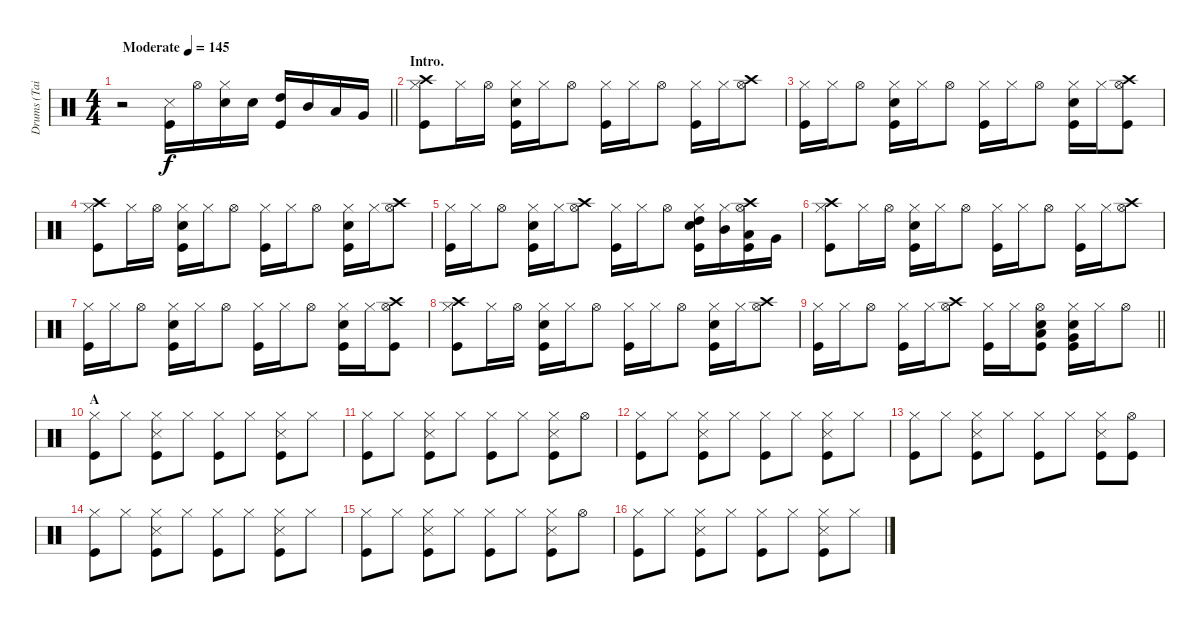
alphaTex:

\track ("Drums (Tainaka Ritsu)" "Drums (Tai") {instrument percussion}
\staff {score}
\articulation defaults
\ts (4 4)
\tempo (145 "Moderate")
\clef neutral
\barLineRight lightlight
\ks c
r.2{dy f} ("Snare (side stick) 3" "Kick (hit)").16 "Hi-Hat (open)".16 ("Hi-Hat (closed)" "Snare (hit) 2").16 "Snare (hit) 2".16 ("High Tom (hit)" "Kick (hit)").16 "Mid Tom (hit)".16 "Low Tom (hit)".16 "Very Low Tom (hit)".16 |
\section ("" "Intro.")
("Crash high (hit)" "Hi-Hat (closed)" "Kick (hit)").8 "Hi-Hat (closed)".16 "Hi-Hat (open)".16 ("Hi-Hat (closed)" "Snare (hit) 2" "Kick (hit)").16 "Hi-Hat (closed)".16 "Hi-Hat (open)".8 ("Hi-Hat (closed)" "Kick (hit)").16 "Hi-Hat (closed)".16 "Hi-Hat (open)".8 ("Hi-Hat (closed)" "Kick (hit)").16 "Hi-Hat (closed)".16 ("Crash high (hit)" "Hi-Hat (open)").8 |
("Hi-Hat (closed)" "Kick (hit)").16 "Hi-Hat (closed)".16 "Hi-Hat (open)".8 ("Hi-Hat (closed)" "Snare (hit) 2" "Kick (hit)").16 "Hi-Hat (closed)".16 "Hi-Hat (open)".8 ("Hi-Hat (closed)" "Kick (hit)").16 "Hi-Hat (closed)".16 "Hi-Hat (open)".8 ("Hi-Hat (closed)" "Snare (hit) 2" "Kick (hit)").16 "Hi-Hat (closed)".16 ("Crash high (hit)" "Hi-Hat (open)" "Kick (hit)").8 |
("Crash high (hit)" "Hi-Hat (closed)" "Kick (hit)").8 "Hi-Hat (closed)".16 "Hi-Hat (open)".16 ("Hi-Hat (closed)" "Snare (hit) 2" "Kick (hit)").16 "Hi-Hat (closed)".16 "Hi-Hat (open)".8 ("Hi-Hat (closed)" "Kick (hit)").16 "Hi-Hat (closed)".16 "Hi-Hat (open)".8 ("Hi-Hat (closed)" "Snare (hit) 2" "Kick (hit)").16 "Hi-Hat (closed)".16 ("Crash high (hit)" "Hi-Hat (open)").8 |
("Hi-Hat (closed)" "Kick (hit)").16 "Hi-Hat (closed)".16 "Hi-Hat (open)".8 ("Hi-Hat (closed)" "Snare (hit) 2" "Kick (hit)").16 "Hi-Hat (closed)".16 ("Crash high (hit)" "Hi-Hat (open)").8 ("Hi-Hat (closed)" "Kick (hit)").16 "Hi-Hat (closed)".16 "Hi-Hat (open)".8 ("Hi-Hat (closed)" "Snare (hit) 2" "High Tom (hit)" "Kick (hit)").16 ("Hi-Hat (closed)" "Mid Tom (hit)").16 ("Crash high (hit)" "Hi-Hat (open)" "Low Tom (hit)" "Kick (hit)").16 "Very Low Tom (hit)".16 |
("Crash high (hit)" "Hi-Hat (closed)" "Kick (hit)").8 "Hi-Hat (closed)".16 "Hi-Hat (open)".16 ("Hi-Hat (closed)" "Snare (hit) 2" "Kick (hit)").16 "Hi-Hat (closed)".16 "Hi-Hat (open)".8 ("Hi-Hat (closed)" "Kick (hit)").16 "Hi-Hat (closed)".16 "Hi-Hat (open)".8 ("Hi-Hat (closed)" "Kick (hit)").16 "Hi-Hat (closed)".16 ("Crash high (hit)" "Hi-Hat (open)").8 |
("Hi-Hat (closed)" "Kick (hit)").16 "Hi-Hat (closed)".16 "Hi-Hat (open)".8 ("Hi-Hat (closed)" "Snare (hit) 2" "Kick (hit)").16 "Hi-Hat (closed)".16 "Hi-Hat (open)".8 ("Hi-Hat (closed)" "Kick (hit)").16 "Hi-Hat (closed)".16 "Hi-Hat (open)".8 ("Hi-Hat (closed)" "Snare (hit) 2" "Kick (hit)").16 "Hi-Hat (closed)".16 ("Crash high (hit)" "Hi-Hat (open)" "Kick (hit)").8 |
("Crash high (hit)" "Hi-Hat (closed)" "Kick (hit)").8 "Hi-Hat (closed)".16 "Hi-Hat (open)".16 ("Hi-Hat (closed)" "Snare (hit) 2" "Kick (hit)").16 "Hi-Hat (closed)".16 "Hi-Hat (open)".8 ("Hi-Hat (closed)" "Kick (hit)").16 "Hi-Hat (closed)".16 "Hi-Hat (open)".8 ("Hi-Hat (closed)" "Snare (hit) 2" "Kick (hit)").16 "Hi-Hat (closed)".16 ("Crash high (hit)" "Hi-Hat (open)").8 |
\barLineRight lightlight
("Hi-Hat (closed)" "Kick (hit)").16 "Hi-Hat (closed)".16 "Hi-Hat (open)".8 ("Hi-Hat (closed)" "Kick (hit)").16 "Hi-Hat (closed)".16 ("Crash high (hit)" "Hi-Hat (open)").8 ("Hi-Hat (closed)" "Kick (hit)").16 "Hi-Hat (closed)".16 ("Hi-Hat (open)" "Snare (hit) 2" "Low Tom (hit)" "Kick (hit)").8 ("Hi-Hat (closed)" "Snare (hit) 2" "Very Low Tom (hit)" "Kick (hit)").16 "Hi-Hat (closed)".16 "Hi-Hat (open)".8 |
\section ("" "A")
("Hi-Hat (closed)" "Kick (hit)").8 "Hi-Hat (closed)".8 ("Hi-Hat (closed)" "Snare (side stick) 3" "Kick (hit)").8 "Hi-Hat (closed)".8 ("Hi-Hat (closed)" "Kick (hit)").8 "Hi-Hat (closed)".8 ("Hi-Hat (closed)" "Snare (side stick) 3" "Kick (hit)").8 "Hi-Hat (closed)".8 |
("Hi-Hat (closed)" "Kick (hit)").8 "Hi-Hat (closed)".8 ("Hi-Hat (closed)" "Snare (side stick) 3" "Kick (hit)").8 "Hi-Hat (closed)".8 ("Hi-Hat (closed)" "Kick (hit)").8 "Hi-Hat (closed)".8 ("Hi-Hat (closed)" "Snare (side stick) 3" "Kick (hit)").8 "Hi-Hat (open)".8 |
("Hi-Hat (closed)" "Kick (hit)").8 "Hi-Hat (closed)".8 ("Hi-Hat (closed)" "Snare (side stick) 3" "Kick (hit)").8 "Hi-Hat (closed)".8 ("Hi-Hat (closed)" "Kick (hit)").8 "Hi-Hat (closed)".8 ("Hi-Hat (closed)" "Snare (side stick) 3" "Kick (hit)").8 "Hi-Hat (closed)".8 |
("Hi-Hat (closed)" "Kick (hit)").8 "Hi-Hat (closed)".8 ("Hi-Hat (closed)" "Snare (side stick) 3" "Kick (hit)").8 "Hi-Hat (closed)".8 ("Hi-Hat (closed)" "Kick (hit)").8 "Hi-Hat (closed)".8 ("Hi-Hat (closed)" "Snare (side stick) 3" "Kick (hit)").8 ("Hi-Hat (open)" "Kick (hit)").8 |
("Hi-Hat (closed)" "Kick (hit)").8 "Hi-Hat (closed)".8 ("Hi-Hat (closed)" "Snare (side stick) 3" "Kick (hit)").8 "Hi-Hat (closed)".8 ("Hi-Hat (closed)" "Kick (hit)").8 "Hi-Hat (closed)".8 ("Hi-Hat (closed)" "Snare (side stick) 3" "Kick (hit)").8 "Hi-Hat (closed)".8 |
("Hi-Hat (closed)" "Kick (hit)").8 "Hi-Hat (closed)".8 ("Hi-Hat (closed)" "Snare (side stick) 3" "Kick (hit)").8 "Hi-Hat (closed)".8 ("Hi-Hat (closed)" "Kick (hit)").8 "Hi-Hat (closed)".8 ("Hi-Hat (closed)" "Snare (side stick) 3" "Kick (hit)").8 "Hi-Hat (open)".8 |
("Hi-Hat (closed)" "Kick (hit)").8 "Hi-Hat (closed)".8 ("Hi-Hat (closed)" "Snare (side stick) 3" "Kick (hit)").8 "Hi-Hat (closed)".8 ("Hi-Hat (closed)" "Kick (hit)").8 "Hi-Hat (closed)".8 ("Hi-Hat (closed)" "Snare (side stick) 3" "Kick (hit)").8 "Hi-Hat (closed)".8
